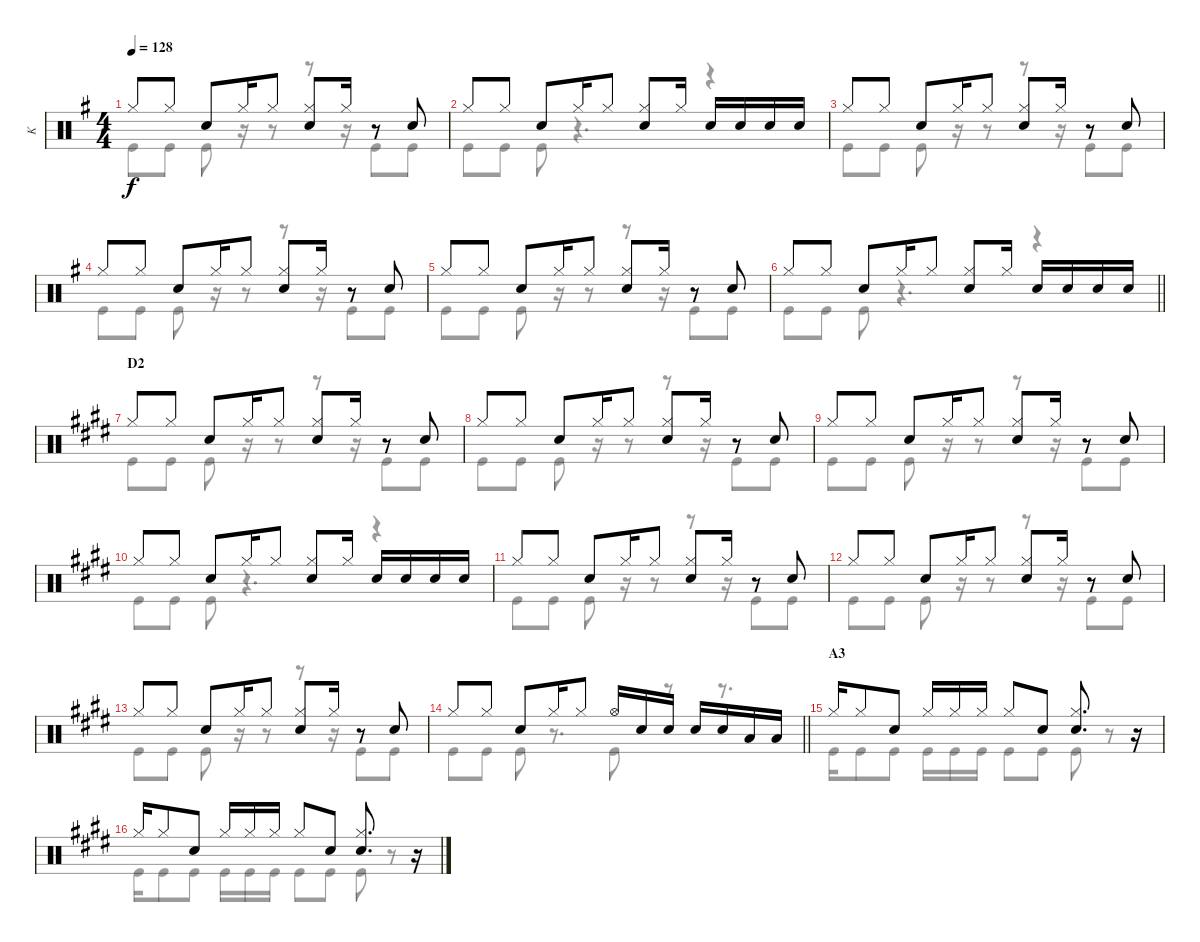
\track ("K" "K") {instrument percussion}
\staff {score}
\articulation defaults
\voice
\ts (4 4)
\tempo 128
\clef neutral
\ks g "Hi-Hat (closed)".8{dy f} "Hi-Hat (closed)".8 "Snare (hit) 2".8 "Hi-Hat (closed)".16 "Hi-Hat (closed)".8
("Hi-Hat (closed)" "Snare (hit) 2").8 "Hi-Hat (closed)".16 r.8 "Snare (hit) 2".8 |
"Hi-Hat (closed)".8 "Hi-Hat (closed)".8 "Snare (hit) 2".8 "Hi-Hat (closed)".16 "Hi-Hat (closed)".8 ("Hi-Hat (closed)" "Snare (hit) 2").8 "Hi-Hat (closed)".16 "Snare (hit) 2".16 "Snare (hit) 2".16 "Snare (hit) 2".16 "Snare (hit) 2".16 |
"Hi-Hat (closed)".8 "Hi-Hat (closed)".8 "Snare (hit) 2".8 "Hi-Hat (closed)".16 "Hi-Hat (closed)".8 ("Hi-Hat (closed)" "Snare (hit) 2").8 "Hi-Hat (closed)".16 r.8 "Snare (hit) 2".8 |
"Hi-Hat (closed)".8 "Hi-Hat (closed)".8 "Snare (hit) 2".8 "Hi-Hat (closed)".16 "Hi-Hat (closed)".8 ("Hi-Hat (closed)" "Snare (hit) 2").8 "Hi-Hat (closed)".16 r.8 "Snare (hit) 2".8 |
"Hi-Hat (closed)".8 "Hi-Hat (closed)".8 "Snare (hit) 2".8 "Hi-Hat (closed)".16 "Hi-Hat (closed)".8 ("Hi-Hat (closed)" "Snare (hit) 2").8 "Hi-Hat (closed)".16 r.8 "Snare (hit) 2".8 |
\barLineRight lightlight "Hi-Hat (closed)".8 "Hi-Hat (closed)".8 "Snare (hit) 2".8 "Hi-Hat (closed)".16 "Hi-Hat (closed)".8
("Hi-Hat (closed)" "Snare (hit) 2").8 "Hi-Hat (closed)".16 "Snare (hit) 2".16 "Snare (hit) 2".16 "Snare (hit) 2".16 "Snare (hit) 2".16 |
\section ("" "D2")
\ks e "Hi-Hat (closed)".8 "Hi-Hat (closed)".8 "Snare (hit) 2".8 "Hi-Hat (closed)".16 "Hi-Hat (closed)".8
("Hi-Hat (closed)" "Snare (hit) 2").8 "Hi-Hat (closed)".16 r.8 "Snare (hit) 2".8 |
"Hi-Hat (closed)".8 "Hi-Hat (closed)".8 "Snare (hit) 2".8 "Hi-Hat (closed)".16 "Hi-Hat (closed)".8 ("Hi-Hat (closed)" "Snare (hit) 2").8 "Hi-Hat (closed)".16 r.8 "Snare (hit) 2".8 |
"Hi-Hat (closed)".8 "Hi-Hat (closed)".8 "Snare (hit) 2".8 "Hi-Hat (closed)".16 "Hi-Hat (closed)".8 ("Hi-Hat (closed)" "Snare (hit) 2").8 "Hi-Hat (closed)".16 r.8 "Snare (hit) 2".8 |
"Hi-Hat (closed)".8 "Hi-Hat (closed)".8 "Snare (hit) 2".8 "Hi-Hat (closed)".16 "Hi-Hat (closed)".8 ("Hi-Hat (closed)" "Snare (hit) 2").8 "Hi-Hat (closed)".16 "Snare (hit) 2".16 "Snare (hit) 2".16 "Snare (hit) 2".16 "Snare (hit) 2".16 |
"Hi-Hat (closed)".8 "Hi-Hat (closed)".8 "Snare (hit) 2".8 "Hi-Hat (closed)".16 "Hi-Hat (closed)".8 ("Hi-Hat (closed)" "Snare (hit) 2").8 "Hi-Hat (closed)".16 r.8 "Snare (hit) 2".8 |
"Hi-Hat (closed)".8 "Hi-Hat (closed)".8 "Snare (hit) 2".8 "Hi-Hat (closed)".16 "Hi-Hat (closed)".8 ("Hi-Hat (closed)" "Snare (hit) 2").8 "Hi-Hat (closed)".16 r.8 "Snare (hit) 2".8 |
"Hi-Hat (closed)".8 "Hi-Hat (closed)".8 "Snare (hit) 2".8 "Hi-Hat (closed)".16 "Hi-Hat (closed)".8 ("Hi-Hat (closed)" "Snare (hit) 2").8 "Hi-Hat (closed)".16 r.8 "Snare (hit) 2".8 |
\barLineRight lightlight "Hi-Hat (closed)".8 "Hi-Hat (closed)".8 "Snare (hit) 2".8 "Hi-Hat (closed)".16 "Hi-Hat (closed)".8 "Hi-Hat (open)".16 "Snare (hit) 2".16 "Snare (hit) 2".16 "Snare (hit) 2".16 "Snare (hit) 2".16 "Low Tom (hit)".16 "Low Tom (hit)".16
|
\section ("" "A3")
"Hi-Hat (closed)".16 "Hi-Hat (closed)".8 "Snare (hit) 2".8 "Hi-Hat (closed)".16 "Hi-Hat (closed)".16 "Hi-Hat (closed)".16 "Hi-Hat (closed)".8 "Snare (hit) 2".8 ("Hi-Hat (closed)" "Snare (hit) 2").8{d} r.16 |
"Hi-Hat (closed)".16 "Hi-Hat (closed)".8 "Snare (hit) 2".8 "Hi-Hat (closed)".16 "Hi-Hat (closed)".16 "Hi-Hat (closed)".16 "Hi-Hat (closed)".8 "Snare (hit) 2".8 ("Hi-Hat (closed)" "Snare (hit) 2").8{d} r.16
\voice
\clef neutral
\ottava regular
\simile none
\ks g "Kick (hit)".8{dy f} "Kick (hit)".8 "Kick (hit)".8
r.16 r.8 r.8 r.16 "Kick (hit)".8 "Kick (hit)".8 |
"Kick (hit)".8 "Kick (hit)".8 "Kick (hit)".8 r.4{d} r.4 |
"Kick (hit)".8 "Kick (hit)".8 "Kick (hit)".8 r.16 r.8 r.8 r.16 "Kick (hit)".8 "Kick (hit)".8 |
"Kick (hit)".8 "Kick (hit)".8 "Kick (hit)".8 r.16 r.8 r.8 r.16 "Kick (hit)".8 "Kick (hit)".8 |
"Kick (hit)".8 "Kick (hit)".8 "Kick (hit)".8 r.16 r.8 r.8 r.16 "Kick (hit)".8 "Kick (hit)".8 |
\barLineRight lightlight "Kick (hit)".8 "Kick (hit)".8 "Kick (hit)".8
r.4{d} r.4 |
\ks e "Kick (hit)".8 "Kick (hit)".8 "Kick (hit)".8
r.16 r.8 r.8 r.16 "Kick (hit)".8 "Kick (hit)".8 |
"Kick (hit)".8 "Kick (hit)".8 "Kick (hit)".8 r.16 r.8 r.8 r.16 "Kick (hit)".8 "Kick (hit)".8 |
"Kick (hit)".8 "Kick (hit)".8 "Kick (hit)".8 r.16 r.8 r.8 r.16 "Kick (hit)".8 "Kick (hit)".8 |
"Kick (hit)".8 "Kick (hit)".8 "Kick (hit)".8 r.4{d} r.4 |
"Kick (hit)".8 "Kick (hit)".8 "Kick (hit)".8 r.16 r.8 r.8 r.16 "Kick (hit)".8 "Kick (hit)".8 |
"Kick (hit)".8 "Kick (hit)".8 "Kick (hit)".8 r.16 r.8 r.8 r.16 "Kick (hit)".8 "Kick (hit)".8 |
"Kick (hit)".8 "Kick (hit)".8 "Kick (hit)".8 r.16 r.8 r.8 r.16 "Kick (hit)".8 "Kick (hit)".8 |
\barLineRight lightlight "Kick (hit)".8 "Kick (hit)".8 "Kick (hit)".8
r.8{d} "Kick (hit)".8 r.8 r.8{d} |
"Kick (hit)".16 "Kick (hit)".8 "Kick (hit)".8 "Kick (hit)".16 "Kick (hit)".16 "Kick (hit)".16 "Kick (hit)".8 "Kick (hit)".8 "Kick (hit)".8 r.8 |
"Kick (hit)".16 "Kick (hit)".8 "Kick (hit)".8 "Kick (hit)".16 "Kick (hit)".16 "Kick (hit)".16 "Kick (hit)".8 "Kick (hit)".8 "Kick (hit)".8 r.8
